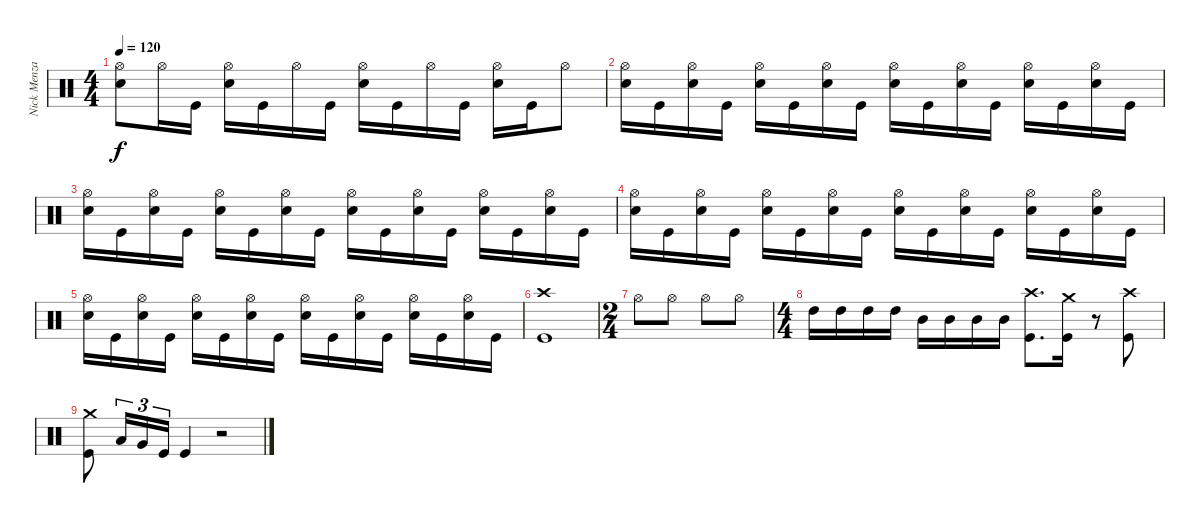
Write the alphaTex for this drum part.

\track ("Nick Menza" "Nick Menza") {instrument percussion}
\staff {score}
\articulation defaults
\ts (4 4)
\tempo 120
\clef neutral
\ks c
("Hi-Hat (open)" "Snare (hit) 2").8{dy f} "Hi-Hat (open)".16 "Kick (hit)".16 ("Hi-Hat (open)" "Snare (hit) 2").16 "Kick (hit)".16 "Hi-Hat (open)".16 "Kick (hit)".16 ("Hi-Hat (open)" "Snare (hit) 2").16 "Kick (hit)".16 "Hi-Hat (open)".16 "Kick (hit)".16 ("Hi-Hat (open)" "Snare (hit) 2").16 "Kick (hit)".16 "Hi-Hat (open)".8 |
("Hi-Hat (open)" "Snare (hit) 2").16 "Kick (hit)".16 ("Hi-Hat (open)" "Snare (hit) 2").16 "Kick (hit)".16 ("Hi-Hat (open)" "Snare (hit) 2").16 "Kick (hit)".16 ("Hi-Hat (open)" "Snare (hit) 2").16 "Kick (hit)".16 ("Hi-Hat (open)" "Snare (hit) 2").16 "Kick (hit)".16 ("Hi-Hat (open)" "Snare (hit) 2").16 "Kick (hit)".16 ("Hi-Hat (open)" "Snare (hit) 2").16 "Kick (hit)".16 ("Hi-Hat (open)" "Snare (hit) 2").16 "Kick (hit)".16 |
("Hi-Hat (open)" "Snare (hit) 2").16 "Kick (hit)".16 ("Hi-Hat (open)" "Snare (hit) 2").16 "Kick (hit)".16 ("Hi-Hat (open)" "Snare (hit) 2").16 "Kick (hit)".16 ("Hi-Hat (open)" "Snare (hit) 2").16 "Kick (hit)".16 ("Hi-Hat (open)" "Snare (hit) 2").16 "Kick (hit)".16 ("Hi-Hat (open)" "Snare (hit) 2").16 "Kick (hit)".16 ("Hi-Hat (open)" "Snare (hit) 2").16 "Kick (hit)".16 ("Hi-Hat (open)" "Snare (hit) 2").16 "Kick (hit)".16 |
("Hi-Hat (open)" "Snare (hit) 2").16 "Kick (hit)".16 ("Hi-Hat (open)" "Snare (hit) 2").16 "Kick (hit)".16 ("Hi-Hat (open)" "Snare (hit) 2").16 "Kick (hit)".16 ("Hi-Hat (open)" "Snare (hit) 2").16 "Kick (hit)".16 ("Hi-Hat (open)" "Snare (hit) 2").16 "Kick (hit)".16 ("Hi-Hat (open)" "Snare (hit) 2").16 "Kick (hit)".16 ("Hi-Hat (open)" "Snare (hit) 2").16 "Kick (hit)".16 ("Hi-Hat (open)" "Snare (hit) 2").16 "Kick (hit)".16 |
("Hi-Hat (open)" "Snare (hit) 2").16 "Kick (hit)".16 ("Hi-Hat (open)" "Snare (hit) 2").16 "Kick (hit)".16 ("Hi-Hat (open)" "Snare (hit) 2").16 "Kick (hit)".16 ("Hi-Hat (open)" "Snare (hit) 2").16 "Kick (hit)".16 ("Hi-Hat (open)" "Snare (hit) 2").16 "Kick (hit)".16 ("Hi-Hat (open)" "Snare (hit) 2").16 "Kick (hit)".16 ("Hi-Hat (open)" "Snare (hit) 2").16 "Kick (hit)".16 ("Hi-Hat (open)" "Snare (hit) 2").16 "Kick (hit)".16 |
("Crash high (hit)" "Kick (hit)").1 |
\ts (2 4)
"Hi-Hat (open)".8 "Hi-Hat (open)".8 "Hi-Hat (open)".8 "Hi-Hat (open)".8 |
\ts (4 4)
"High Tom (hit)".16 "High Tom (hit)".16 "High Tom (hit)".16 "High Tom (hit)".16 "Mid Tom (hit)".16 "Mid Tom (hit)".16 "Mid Tom (hit)".16 "Mid Tom (hit)".16 ("Crash high (hit)" "Kick (hit)").8{d} ("Crash medium (hit)" "Kick (hit)").16 r.8 ("Crash high (hit)" "Kick (hit)").8 |
("Crash medium (hit)" "Kick (hit)").8 "Low Floor Tom (hit)".16{tu (3 2)} "Very Low Tom (hit)".16{tu (3 2)} "Kick (hit)".16{tu (3 2)} "Kick (hit)".4 r.2
